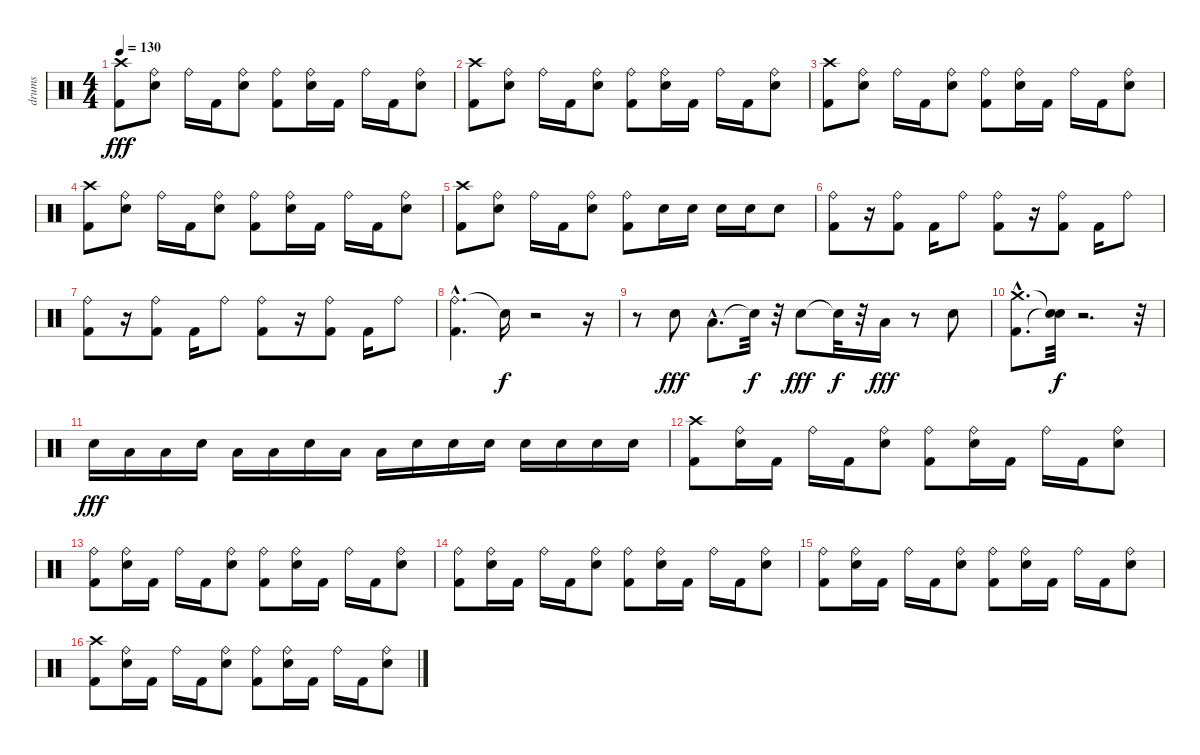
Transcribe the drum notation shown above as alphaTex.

\track ("drums" "drums") {instrument percussion}
\staff {score}
\articulation defaults
\ts (4 4)
\tempo 130
\clef neutral
\ks c
("Crash high (hit)" "Kick (hit) 2").8{dy fff} ("Ride (bell)" "Snare (hit) 2").8 "Ride (bell)".16 "Kick (hit) 2".16 ("Ride (bell)" "Snare (hit) 2").8 ("Ride (bell)" "Kick (hit) 2").8 ("Ride (bell)" "Snare (hit) 2").16 "Kick (hit) 2".16 "Ride (bell)".16 "Kick (hit) 2".16 ("Ride (bell)" "Snare (hit) 2").8 |
("Crash high (hit)" "Kick (hit) 2").8 ("Ride (bell)" "Snare (hit) 2").8 "Ride (bell)".16 "Kick (hit) 2".16 ("Ride (bell)" "Snare (hit) 2").8 ("Ride (bell)" "Kick (hit) 2").8 ("Ride (bell)" "Snare (hit) 2").16 "Kick (hit) 2".16 "Ride (bell)".16 "Kick (hit) 2".16 ("Ride (bell)" "Snare (hit) 2").8 |
("Crash high (hit)" "Kick (hit) 2").8 ("Ride (bell)" "Snare (hit) 2").8 "Ride (bell)".16 "Kick (hit) 2".16 ("Ride (bell)" "Snare (hit) 2").8 ("Ride (bell)" "Kick (hit) 2").8 ("Ride (bell)" "Snare (hit) 2").16 "Kick (hit) 2".16 "Ride (bell)".16 "Kick (hit) 2".16 ("Ride (bell)" "Snare (hit) 2").8 |
("Crash high (hit)" "Kick (hit) 2").8 ("Ride (bell)" "Snare (hit) 2").8 "Ride (bell)".16 "Kick (hit) 2".16 ("Ride (bell)" "Snare (hit) 2").8 ("Ride (bell)" "Kick (hit) 2").8 ("Ride (bell)" "Snare (hit) 2").16 "Kick (hit) 2".16 "Ride (bell)".16 "Kick (hit) 2".16 ("Ride (bell)" "Snare (hit) 2").8 |
("Crash high (hit)" "Kick (hit) 2").8 ("Ride (bell)" "Snare (hit) 2").8 "Ride (bell)".16 "Kick (hit) 2".16 ("Ride (bell)" "Snare (hit) 2").8 ("Ride (bell)" "Kick (hit) 2").8 "Snare (hit) 2".16 "Snare (hit) 2".16 "Snare (hit) 2".16 "Snare (hit) 2".16 "Snare (hit) 2".8 |
("Ride (bell)" "Kick (hit) 2").8 r.16 ("Ride (bell)" "Kick (hit) 2").8 "Kick (hit) 2".16 "Ride (bell)".8 ("Ride (bell)" "Kick (hit) 2").8 r.16 ("Ride (bell)" "Kick (hit) 2").8 "Kick (hit) 2".16 "Ride (bell)".8 |
("Ride (bell)" "Kick (hit) 2").8 r.16 ("Ride (bell)" "Kick (hit) 2").8 "Kick (hit) 2".16 "Ride (bell)".8 ("Ride (bell)" "Kick (hit) 2").8 r.16 ("Ride (bell)" "Kick (hit) 2").8 "Kick (hit) 2".16 "Ride (bell)".8 |
("Ride (bell)"{hac} "Kick (hit) 2").4{d} "Snare (hit)"{t}.16{dy f} r.2 r.16 |
r.8 "Snare (hit) 2".8{dy fff} "Low Tom (hit)"{hac}.8{d} "Snare (hit)"{t}.32{dy f} r.32 "Snare (hit) 2".8{dy fff} "Snare (hit)"{t}.32{dy f} r.32 "Low Tom (hit)".16{dy fff} r.8 "Snare (hit) 2".8 |
("Crash medium (hit)"{hac} "Kick (hit) 2"{hac}).8{d} ("Snare (hit)"{t} "Snare (hit)"{t}).32{dy f} r.2{d} r.32 |
"Snare (hit) 2".16{dy fff} "Low Tom (hit)".16 "Low Tom (hit)".16 "Snare (hit) 2".16 "Low Tom (hit)".16 "Low Tom (hit)".16 "Snare (hit) 2".16 "Low Tom (hit)".16 "Low Tom (hit)".16 "Snare (hit) 2".16 "Snare (hit) 2".16 "Snare (hit) 2".16 "Snare (hit) 2".16 "Snare (hit) 2".16 "Snare (hit) 2".16 "Snare (hit) 2".16 |
("Crash high (hit)" "Kick (hit) 2").8 ("Ride (bell)" "Snare (hit) 2").16 "Kick (hit) 2".16 "Ride (bell)".16 "Kick (hit) 2".16 ("Ride (bell)" "Snare (hit) 2").8 ("Ride (bell)" "Kick (hit) 2").8 ("Ride (bell)" "Snare (hit) 2").16 "Kick (hit) 2".16 "Ride (bell)".16 "Kick (hit) 2".16 ("Ride (bell)" "Snare (hit) 2").8 |
("Ride (bell)" "Kick (hit) 2").8 ("Ride (bell)" "Snare (hit) 2").16 "Kick (hit) 2".16 "Ride (bell)".16 "Kick (hit) 2".16 ("Ride (bell)" "Snare (hit) 2").8 ("Ride (bell)" "Kick (hit) 2").8 ("Ride (bell)" "Snare (hit) 2").16 "Kick (hit) 2".16 "Ride (bell)".16 "Kick (hit) 2".16 ("Ride (bell)" "Snare (hit) 2").8 |
("Ride (bell)" "Kick (hit) 2").8 ("Ride (bell)" "Snare (hit) 2").16 "Kick (hit) 2".16 "Ride (bell)".16 "Kick (hit) 2".16 ("Ride (bell)" "Snare (hit) 2").8 ("Ride (bell)" "Kick (hit) 2").8 ("Ride (bell)" "Snare (hit) 2").16 "Kick (hit) 2".16 "Ride (bell)".16 "Kick (hit) 2".16 ("Ride (bell)" "Snare (hit) 2").8 |
("Ride (bell)" "Kick (hit) 2").8 ("Ride (bell)" "Snare (hit) 2").16 "Kick (hit) 2".16 "Ride (bell)".16 "Kick (hit) 2".16 ("Ride (bell)" "Snare (hit) 2").8 ("Ride (bell)" "Kick (hit) 2").8 ("Ride (bell)" "Snare (hit) 2").16 "Kick (hit) 2".16 "Ride (bell)".16 "Kick (hit) 2".16 ("Ride (bell)" "Snare (hit) 2").8 |
("Crash high (hit)" "Kick (hit) 2").8 ("Ride (bell)" "Snare (hit) 2").16 "Kick (hit) 2".16 "Ride (bell)".16 "Kick (hit) 2".16 ("Ride (bell)" "Snare (hit) 2").8 ("Ride (bell)" "Kick (hit) 2").8 ("Ride (bell)" "Snare (hit) 2").16 "Kick (hit) 2".16 "Ride (bell)".16 "Kick (hit) 2".16 ("Ride (bell)" "Snare (hit) 2").8
